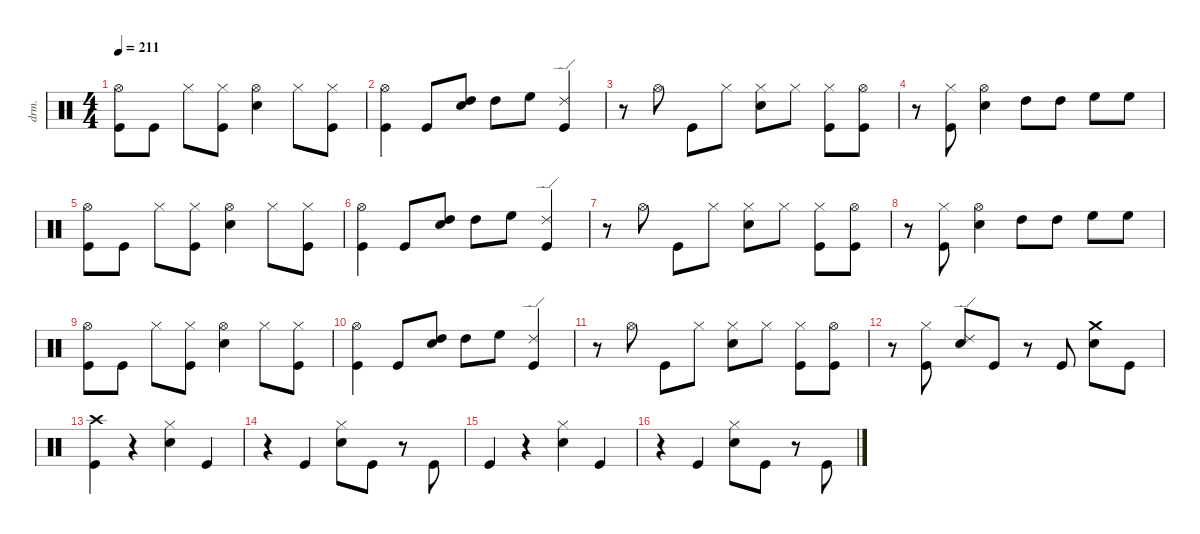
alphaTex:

\defaultSystemsLayout 4
\hideDynamics
\bracketExtendMode nobrackets
\otherSystemsTrackNameOrientation horizontal
\track ("Drums" "drm.") {instrument percussion}
\staff {score}
\articulation defaults
\ts (4 4)
\tempo 211
\clef neutral
\ks c
("Kick (hit)" "Hi-Hat (open)"{acc #}).8{dy f beam Down} "Kick (hit)".8{dy fff beam Down} "Hi-Hat (closed)"{acc #}.8{dy ff beam Down} ("Kick (hit)" "Hi-Hat (closed)"{acc #}).8{beam Down} ("Snare (hit) 2" "Hi-Hat (open)"{acc #}).4{beam Down} "Hi-Hat (closed)"{acc #}.8{beam Down} ("Kick (hit)" "Hi-Hat (closed)"{acc #}).8{dy f beam Down} |
("Kick (hit)" "Hi-Hat (open)"{acc #}).4{dy fff beam Down} "Kick (hit)".8{dy ff beam Up} ("Snare (hit) 2" "High Tom (hit)").8{beam Up} "High Tom (hit)".8{dy mp beam Down} "High Floor Tom (hit)".8{dy ff beam Down} ("Kick (hit)" "Ride (edge) 2").4{beam Up} |
r.8{beam Down} "Hi-Hat (open)"{acc #}.8{beam Down} "Kick (hit)".8{beam Down} "Hi-Hat (closed)"{acc #}.8{dy p beam Down} ("Snare (hit) 2" "Hi-Hat (closed)"{acc #}).8{dy ff beam Down} "Hi-Hat (closed)"{acc #}.8{dy mp beam Down} ("Kick (hit)" "Hi-Hat (closed)"{acc #}).8{dy f beam Down} ("Kick (hit)" "Hi-Hat (open)"{acc #}).8{dy fff beam Down} |
r.8{beam Down} ("Kick (hit)" "Hi-Hat (closed)"{acc #}).8{dy ff beam Down} ("Snare (hit) 2" "Hi-Hat (open)"{acc #}).4{beam Down} "High Tom (hit)".8{beam Down} "High Tom (hit)".8{dy f beam Down} "High Floor Tom (hit)".8{dy ff beam Down} "High Floor Tom (hit)".8{dy f beam Down} |
("Kick (hit)" "Hi-Hat (open)"{acc #}).8{beam Down} "Kick (hit)".8{dy fff beam Down} "Hi-Hat (closed)"{acc #}.8{dy ff beam Down} ("Kick (hit)" "Hi-Hat (closed)"{acc #}).8{beam Down} ("Snare (hit) 2" "Hi-Hat (open)"{acc #}).4{beam Down} "Hi-Hat (closed)"{acc #}.8{beam Down} ("Kick (hit)" "Hi-Hat (closed)"{acc #}).8{dy f beam Down} |
("Kick (hit)" "Hi-Hat (open)"{acc #}).4{dy fff beam Down} "Kick (hit)".8{dy ff beam Up} ("Snare (hit) 2" "High Tom (hit)").8{beam Up} "High Tom (hit)".8{dy mp beam Down} "High Floor Tom (hit)".8{dy ff beam Down} ("Kick (hit)" "Ride (edge) 2").4{beam Up} |
r.8{beam Down} "Hi-Hat (open)"{acc #}.8{beam Down} "Kick (hit)".8{beam Down} "Hi-Hat (closed)"{acc #}.8{dy mp beam Down} ("Snare (hit) 2" "Hi-Hat (closed)"{acc #}).8{dy ff beam Down} "Hi-Hat (closed)"{acc #}.8{dy mp beam Down} ("Kick (hit)" "Hi-Hat (closed)"{acc #}).8{dy ff beam Down} ("Kick (hit)" "Hi-Hat (open)"{acc #}).8{beam Down} |
r.8{beam Down} ("Kick (hit)" "Hi-Hat (closed)"{acc #}).8{beam Down} ("Snare (hit) 2" "Hi-Hat (open)"{acc #}).4{beam Down} "High Tom (hit)".8{beam Down} "High Tom (hit)".8{dy f beam Down} "High Floor Tom (hit)".8{dy ff beam Down} "High Floor Tom (hit)".8{dy f beam Down} |
("Kick (hit)" "Hi-Hat (open)"{acc #}).8{beam Down} "Kick (hit)".8{dy fff beam Down} "Hi-Hat (closed)"{acc #}.8{dy ff beam Down} ("Kick (hit)" "Hi-Hat (closed)"{acc #}).8{beam Down} ("Snare (hit) 2" "Hi-Hat (open)"{acc #}).4{beam Down} "Hi-Hat (closed)"{acc #}.8{beam Down} ("Kick (hit)" "Hi-Hat (closed)"{acc #}).8{dy f beam Down} |
("Kick (hit)" "Hi-Hat (open)"{acc #}).4{dy fff beam Down} "Kick (hit)".8{dy ff beam Up} ("Snare (hit) 2" "High Tom (hit)").8{beam Up} "High Tom (hit)".8{dy mp beam Down} "High Floor Tom (hit)".8{dy ff beam Down} ("Kick (hit)" "Ride (edge) 2").4{beam Up} |
r.8{beam Down} "Hi-Hat (open)"{acc #}.8{beam Down} "Kick (hit)".8{beam Down} "Hi-Hat (closed)"{acc #}.8{dy p beam Down} ("Snare (hit) 2" "Hi-Hat (closed)"{acc #}).8{dy ff beam Down} "Hi-Hat (closed)"{acc #}.8{dy mp beam Down} ("Kick (hit)" "Hi-Hat (closed)"{acc #}).8{dy ff beam Down} ("Kick (hit)" "Hi-Hat (open)"{acc #}).8{beam Down} |
r.8{beam Down} ("Kick (hit)" "Hi-Hat (closed)"{acc #}).8{beam Down} ("Snare (hit) 2" "Ride (edge) 2").8{beam Up} "Kick (hit)".8{beam Up} r.8{beam Up} "Kick (hit)".8{beam Up} ("Snare (hit) 2" "Crash medium (hit)").8{beam Down} "Kick (hit)".8{dy f beam Down} |
("Kick (hit)" "Crash high (hit)"{acc #}).4{dy fff beam Down} r.4{beam Down} ("Snare (hit) 2" "Hi-Hat (closed)"{acc #}).4{dy ff beam Down} "Kick (hit)".4{beam Up} |
r.4{beam Down} "Kick (hit)".4{beam Up} ("Snare (hit) 2" "Hi-Hat (closed)"{acc #}).8{beam Down} "Kick (hit)".8{beam Down} r.8{beam Down} "Kick (hit)".8{dy mp beam Up} |
"Kick (hit)".4{dy fff beam Up} r.4{beam Up} ("Snare (hit) 2" "Hi-Hat (closed)"{acc #}).4{dy ff beam Down} "Kick (hit)".4{beam Up} |
r.4{beam Down} "Kick (hit)".4{beam Up} ("Snare (hit) 2" "Hi-Hat (closed)"{acc #}).8{beam Down} "Kick (hit)".8{beam Down} r.8{beam Down} "Kick (hit)".8{dy mp beam Up}
